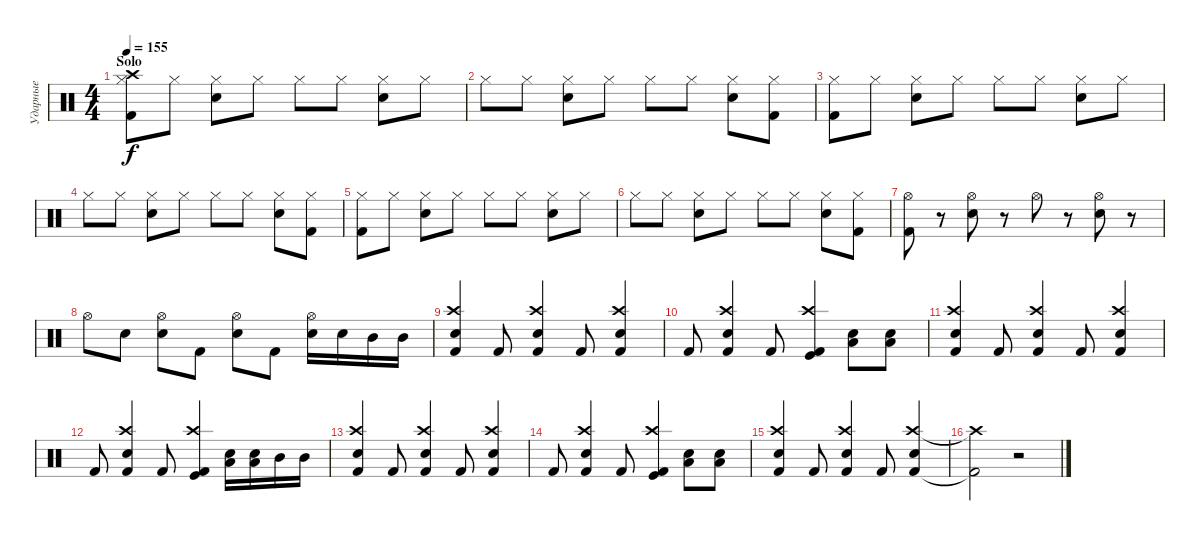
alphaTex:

\track ("Ударные" "Ударные") {instrument percussion}
\staff {score}
\articulation defaults
\ts (4 4)
\section ("" "Solo")
\tempo 155
\clef neutral
\ks c
("Hi-Hat (closed)" "Kick (hit) 2" "Crash high (hit)").8{dy f} "Hi-Hat (closed)".8 ("Hi-Hat (closed)" "Snare (hit) 2").8 "Hi-Hat (closed)".8 "Hi-Hat (closed)".8 "Hi-Hat (closed)".8 ("Hi-Hat (closed)" "Snare (hit) 2").8 "Hi-Hat (closed)".8 |
"Hi-Hat (closed)".8 "Hi-Hat (closed)".8 ("Hi-Hat (closed)" "Snare (hit) 2").8 "Hi-Hat (closed)".8 "Hi-Hat (closed)".8 "Hi-Hat (closed)".8 ("Hi-Hat (closed)" "Snare (hit) 2").8 ("Hi-Hat (closed)" "Kick (hit) 2").8 |
("Hi-Hat (closed)" "Kick (hit) 2").8 "Hi-Hat (closed)".8 ("Hi-Hat (closed)" "Snare (hit) 2").8 "Hi-Hat (closed)".8 "Hi-Hat (closed)".8 "Hi-Hat (closed)".8 ("Hi-Hat (closed)" "Snare (hit) 2").8 "Hi-Hat (closed)".8 |
"Hi-Hat (closed)".8 "Hi-Hat (closed)".8 ("Hi-Hat (closed)" "Snare (hit) 2").8 "Hi-Hat (closed)".8 "Hi-Hat (closed)".8 "Hi-Hat (closed)".8 ("Hi-Hat (closed)" "Snare (hit) 2").8 ("Hi-Hat (closed)" "Kick (hit) 2").8 |
("Hi-Hat (closed)" "Kick (hit) 2").8 "Hi-Hat (closed)".8 ("Hi-Hat (closed)" "Snare (hit) 2").8 "Hi-Hat (closed)".8 "Hi-Hat (closed)".8 "Hi-Hat (closed)".8 ("Hi-Hat (closed)" "Snare (hit) 2").8 "Hi-Hat (closed)".8 |
"Hi-Hat (closed)".8 "Hi-Hat (closed)".8 ("Hi-Hat (closed)" "Snare (hit) 2").8 "Hi-Hat (closed)".8 "Hi-Hat (closed)".8 "Hi-Hat (closed)".8 ("Hi-Hat (closed)" "Snare (hit) 2").8 ("Hi-Hat (closed)" "Kick (hit) 2").8 |
("Hi-Hat (open)" "Kick (hit) 2").8 r.8 ("Hi-Hat (open)" "Snare (hit) 2").8 r.8 "Hi-Hat (open)".8 r.8 ("Hi-Hat (open)" "Snare (hit) 2").8 r.8 |
"Hi-Hat (open)".8 "Snare (hit) 2".8 ("Hi-Hat (open)" "Snare (hit) 2").8 "Kick (hit) 2".8 ("Hi-Hat (open)" "Snare (hit) 2").8 "Kick (hit) 2".8 ("Hi-Hat (open)" "Snare (hit) 2").16 "Snare (hit) 2".16 "Mid Tom (hit)".16 "Mid Tom (hit)".16 |
("Crash high (hit)" "Kick (hit) 2" "Snare (hit) 2").4 "Kick (hit) 2".8 ("Crash high (hit)" "Kick (hit) 2" "Snare (hit) 2").4 "Kick (hit) 2".8 ("Crash high (hit)" "Kick (hit) 2" "Snare (hit) 2").4 |
"Kick (hit) 2".8 ("Crash high (hit)" "Kick (hit) 2" "Snare (hit) 2").4 "Kick (hit) 2".8 ("Crash high (hit)" "Kick (hit) 2" "Kick (hit)").4 ("Low Floor Tom (hit)" "Snare (hit) 2").8 ("Low Floor Tom (hit)" "Snare (hit) 2").8 |
("Crash high (hit)" "Kick (hit) 2" "Snare (hit) 2").4 "Kick (hit) 2".8 ("Crash high (hit)" "Kick (hit) 2" "Snare (hit) 2").4 "Kick (hit) 2".8 ("Crash high (hit)" "Kick (hit) 2" "Snare (hit) 2").4 |
"Kick (hit) 2".8 ("Crash high (hit)" "Kick (hit) 2" "Snare (hit) 2").4 "Kick (hit) 2".8 ("Crash high (hit)" "Kick (hit) 2" "Kick (hit)").4 ("Low Floor Tom (hit)" "Snare (hit) 2").16 ("Low Floor Tom (hit)" "Snare (hit) 2").16 "Mid Tom (hit)".16 "Mid Tom (hit)".16 |
("Crash high (hit)" "Kick (hit) 2" "Snare (hit) 2").4 "Kick (hit) 2".8 ("Crash high (hit)" "Kick (hit) 2" "Snare (hit) 2").4 "Kick (hit) 2".8 ("Crash high (hit)" "Kick (hit) 2" "Snare (hit) 2").4 |
"Kick (hit) 2".8 ("Crash high (hit)" "Kick (hit) 2" "Snare (hit) 2").4 "Kick (hit) 2".8 ("Crash high (hit)" "Kick (hit) 2" "Kick (hit)").4 ("Low Floor Tom (hit)" "Snare (hit) 2").8 ("Low Floor Tom (hit)" "Snare (hit) 2").8 |
("Crash high (hit)" "Kick (hit) 2" "Snare (hit) 2").4 "Kick (hit) 2".8 ("Crash high (hit)" "Kick (hit) 2" "Snare (hit) 2").4 "Kick (hit) 2".8 ("Crash high (hit)" "Kick (hit) 2" "Snare (hit) 2").4 |
("Crash high (hit)"{t} "Kick (hit) 2"{t}).2 r.2
